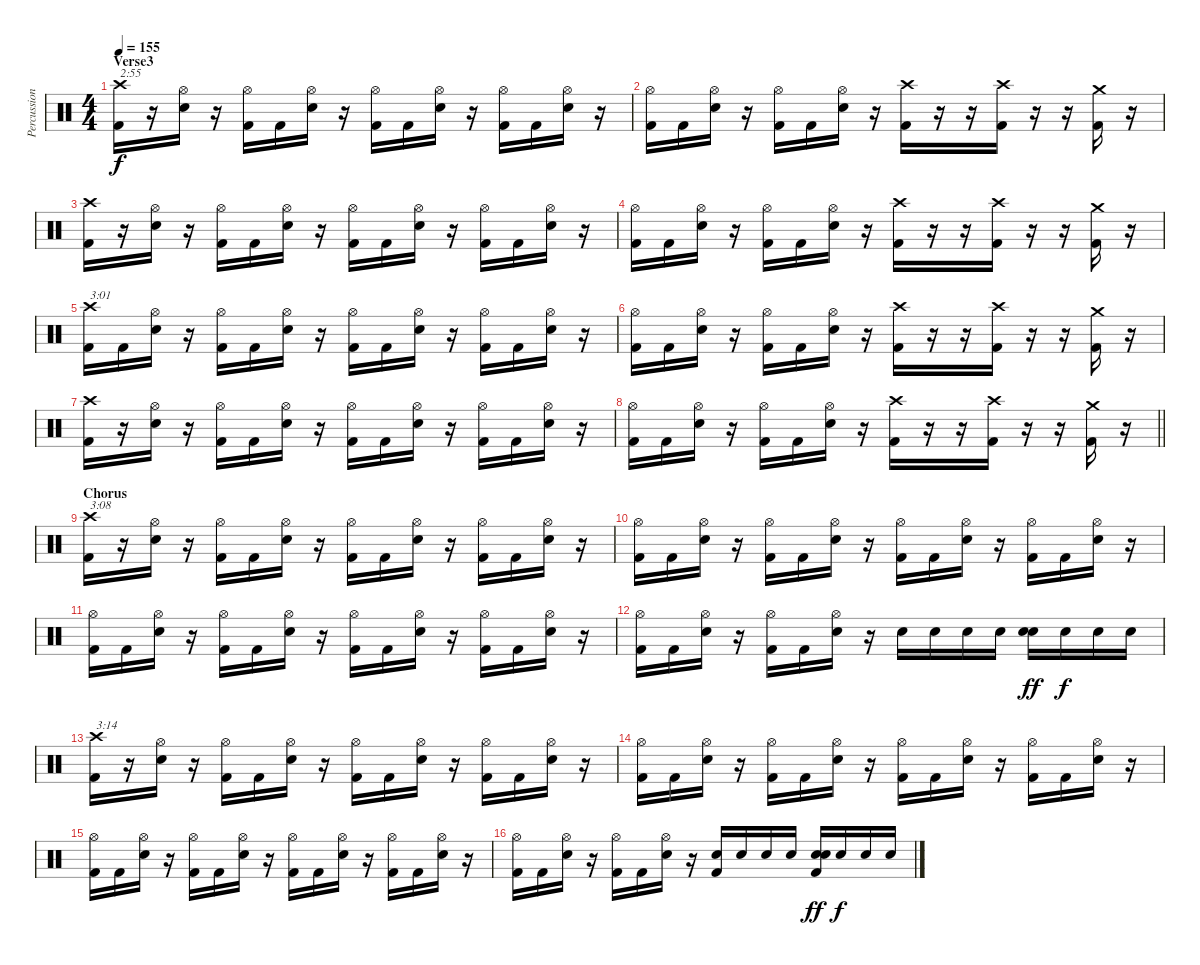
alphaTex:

\track ("Percussion" "Percussion") {instrument percussion}
\staff {score}
\articulation defaults
\ts (4 4)
\section ("" "Verse3")
\tempo 155
\clef neutral
\ks c
("Crash high (hit)" "Kick (hit) 2").16{txt "2:55" dy f} r.16 ("Hi-Hat (open)" "Snare (hit) 2").16 r.16 ("Hi-Hat (open)" "Kick (hit) 2").16 "Kick (hit) 2".16 ("Hi-Hat (open)" "Snare (hit) 2").16 r.16 ("Hi-Hat (open)" "Kick (hit) 2").16 "Kick (hit) 2".16 ("Hi-Hat (open)" "Snare (hit) 2").16 r.16 ("Hi-Hat (open)" "Kick (hit) 2").16 "Kick (hit) 2".16 ("Hi-Hat (open)" "Snare (hit) 2").16 r.16 |
("Hi-Hat (open)" "Kick (hit) 2").16 "Kick (hit) 2".16 ("Hi-Hat (open)" "Snare (hit) 2").16 r.16 ("Hi-Hat (open)" "Kick (hit) 2").16 "Kick (hit) 2".16 ("Hi-Hat (open)" "Snare (hit) 2").16 r.16 ("Crash high (hit)" "Kick (hit) 2").16 r.16 r.16 ("Crash high (hit)" "Kick (hit) 2").16 r.16 r.16 ("Crash medium (hit)" "Kick (hit) 2").16 r.16 |
("Crash high (hit)" "Kick (hit) 2").16 r.16 ("Hi-Hat (open)" "Snare (hit) 2").16 r.16 ("Hi-Hat (open)" "Kick (hit) 2").16 "Kick (hit) 2".16 ("Hi-Hat (open)" "Snare (hit) 2").16 r.16 ("Hi-Hat (open)" "Kick (hit) 2").16 "Kick (hit) 2".16 ("Hi-Hat (open)" "Snare (hit) 2").16 r.16 ("Hi-Hat (open)" "Kick (hit) 2").16 "Kick (hit) 2".16 ("Hi-Hat (open)" "Snare (hit) 2").16 r.16 |
("Hi-Hat (open)" "Kick (hit) 2").16 "Kick (hit) 2".16 ("Hi-Hat (open)" "Snare (hit) 2").16 r.16 ("Hi-Hat (open)" "Kick (hit) 2").16 "Kick (hit) 2".16 ("Hi-Hat (open)" "Snare (hit) 2").16 r.16 ("Crash high (hit)" "Kick (hit) 2").16 r.16 r.16 ("Crash high (hit)" "Kick (hit) 2").16 r.16 r.16 ("Crash medium (hit)" "Kick (hit) 2").16 r.16 |
("Crash high (hit)" "Kick (hit) 2").16{txt "3:01"} "Kick (hit) 2".16 ("Hi-Hat (open)" "Snare (hit) 2").16 r.16 ("Hi-Hat (open)" "Kick (hit) 2").16 "Kick (hit) 2".16 ("Hi-Hat (open)" "Snare (hit) 2").16 r.16 ("Hi-Hat (open)" "Kick (hit) 2").16 "Kick (hit) 2".16 ("Hi-Hat (open)" "Snare (hit) 2").16 r.16 ("Hi-Hat (open)" "Kick (hit) 2").16 "Kick (hit) 2".16 ("Hi-Hat (open)" "Snare (hit) 2").16 r.16 |
("Hi-Hat (open)" "Kick (hit) 2").16 "Kick (hit) 2".16 ("Hi-Hat (open)" "Snare (hit) 2").16 r.16 ("Hi-Hat (open)" "Kick (hit) 2").16 "Kick (hit) 2".16 ("Hi-Hat (open)" "Snare (hit) 2").16 r.16 ("Crash high (hit)" "Kick (hit) 2").16 r.16 r.16 ("Crash high (hit)" "Kick (hit) 2").16 r.16 r.16 ("Crash medium (hit)" "Kick (hit) 2").16 r.16 |
("Crash high (hit)" "Kick (hit) 2").16 r.16 ("Hi-Hat (open)" "Snare (hit) 2").16 r.16 ("Hi-Hat (open)" "Kick (hit) 2").16 "Kick (hit) 2".16 ("Hi-Hat (open)" "Snare (hit) 2").16 r.16 ("Hi-Hat (open)" "Kick (hit) 2").16 "Kick (hit) 2".16 ("Hi-Hat (open)" "Snare (hit) 2").16 r.16 ("Hi-Hat (open)" "Kick (hit) 2").16 "Kick (hit) 2".16 ("Hi-Hat (open)" "Snare (hit) 2").16 r.16 |
\barLineRight lightlight
("Hi-Hat (open)" "Kick (hit) 2").16 "Kick (hit) 2".16 ("Hi-Hat (open)" "Snare (hit) 2").16 r.16 ("Hi-Hat (open)" "Kick (hit) 2").16 "Kick (hit) 2".16 ("Hi-Hat (open)" "Snare (hit) 2").16 r.16 ("Crash high (hit)" "Kick (hit) 2").16 r.16 r.16 ("Crash high (hit)" "Kick (hit) 2").16 r.16 r.16 ("Crash medium (hit)" "Kick (hit) 2").16 r.16 |
\section ("" "Chorus")
("Crash high (hit)" "Kick (hit) 2").16{txt "3:08"} r.16 ("Hi-Hat (open)" "Snare (hit) 2").16 r.16 ("Hi-Hat (open)" "Kick (hit) 2").16 "Kick (hit) 2".16 ("Hi-Hat (open)" "Snare (hit) 2").16 r.16 ("Hi-Hat (open)" "Kick (hit) 2").16 "Kick (hit) 2".16 ("Hi-Hat (open)" "Snare (hit) 2").16 r.16 ("Hi-Hat (open)" "Kick (hit) 2").16 "Kick (hit) 2".16 ("Hi-Hat (open)" "Snare (hit) 2").16 r.16 |
("Hi-Hat (open)" "Kick (hit) 2").16 "Kick (hit) 2".16 ("Hi-Hat (open)" "Snare (hit) 2").16 r.16 ("Hi-Hat (open)" "Kick (hit) 2").16 "Kick (hit) 2".16 ("Hi-Hat (open)" "Snare (hit) 2").16 r.16 ("Hi-Hat (open)" "Kick (hit) 2").16 "Kick (hit) 2".16 ("Hi-Hat (open)" "Snare (hit) 2").16 r.16 ("Hi-Hat (open)" "Kick (hit) 2").16 "Kick (hit) 2".16 ("Hi-Hat (open)" "Snare (hit) 2").16 r.16 |
("Hi-Hat (open)" "Kick (hit) 2").16 "Kick (hit) 2".16 ("Hi-Hat (open)" "Snare (hit) 2").16 r.16 ("Hi-Hat (open)" "Kick (hit) 2").16 "Kick (hit) 2".16 ("Hi-Hat (open)" "Snare (hit) 2").16 r.16 ("Hi-Hat (open)" "Kick (hit) 2").16 "Kick (hit) 2".16 ("Hi-Hat (open)" "Snare (hit) 2").16 r.16 ("Hi-Hat (open)" "Kick (hit) 2").16 "Kick (hit) 2".16 ("Hi-Hat (open)" "Snare (hit) 2").16 r.16 |
("Hi-Hat (open)" "Kick (hit) 2").16 "Kick (hit) 2".16 ("Hi-Hat (open)" "Snare (hit) 2").16 r.16 ("Hi-Hat (open)" "Kick (hit) 2").16 "Kick (hit) 2".16 ("Hi-Hat (open)" "Snare (hit) 2").16 r.16 "Snare (hit) 2".16 "Snare (hit) 2".16 "Snare (hit) 2".16 "Snare (hit) 2".16 ("Snare (hit) 2" "Snare (hit) 2").16{dy ff} "Snare (hit) 2".16{dy f} "Snare (hit) 2".16 "Snare (hit) 2".16 |
("Crash high (hit)" "Kick (hit) 2").16{txt "3:14"} r.16 ("Hi-Hat (open)" "Snare (hit) 2").16 r.16 ("Hi-Hat (open)" "Kick (hit) 2").16 "Kick (hit) 2".16 ("Hi-Hat (open)" "Snare (hit) 2").16 r.16 ("Hi-Hat (open)" "Kick (hit) 2").16 "Kick (hit) 2".16 ("Hi-Hat (open)" "Snare (hit) 2").16 r.16 ("Hi-Hat (open)" "Kick (hit) 2").16 "Kick (hit) 2".16 ("Hi-Hat (open)" "Snare (hit) 2").16 r.16 |
("Hi-Hat (open)" "Kick (hit) 2").16 "Kick (hit) 2".16 ("Hi-Hat (open)" "Snare (hit) 2").16 r.16 ("Hi-Hat (open)" "Kick (hit) 2").16 "Kick (hit) 2".16 ("Hi-Hat (open)" "Snare (hit) 2").16 r.16 ("Hi-Hat (open)" "Kick (hit) 2").16 "Kick (hit) 2".16 ("Hi-Hat (open)" "Snare (hit) 2").16 r.16 ("Hi-Hat (open)" "Kick (hit) 2").16 "Kick (hit) 2".16 ("Hi-Hat (open)" "Snare (hit) 2").16 r.16 |
("Hi-Hat (open)" "Kick (hit) 2").16 "Kick (hit) 2".16 ("Hi-Hat (open)" "Snare (hit) 2").16 r.16 ("Hi-Hat (open)" "Kick (hit) 2").16 "Kick (hit) 2".16 ("Hi-Hat (open)" "Snare (hit) 2").16 r.16 ("Hi-Hat (open)" "Kick (hit) 2").16 "Kick (hit) 2".16 ("Hi-Hat (open)" "Snare (hit) 2").16 r.16 ("Hi-Hat (open)" "Kick (hit) 2").16 "Kick (hit) 2".16 ("Hi-Hat (open)" "Snare (hit) 2").16 r.16 |
("Hi-Hat (open)" "Kick (hit) 2").16 "Kick (hit) 2".16 ("Hi-Hat (open)" "Snare (hit) 2").16 r.16 ("Hi-Hat (open)" "Kick (hit) 2").16 "Kick (hit) 2".16 ("Hi-Hat (open)" "Snare (hit) 2").16 r.16 ("Snare (hit) 2" "Kick (hit) 2").16 "Snare (hit) 2".16 "Snare (hit) 2".16 "Snare (hit) 2".16 ("Snare (hit) 2" "Snare (hit) 2" "Kick (hit) 2").16{dy ff} "Snare (hit) 2".16{dy f} "Snare (hit) 2".16 "Snare (hit) 2".16
